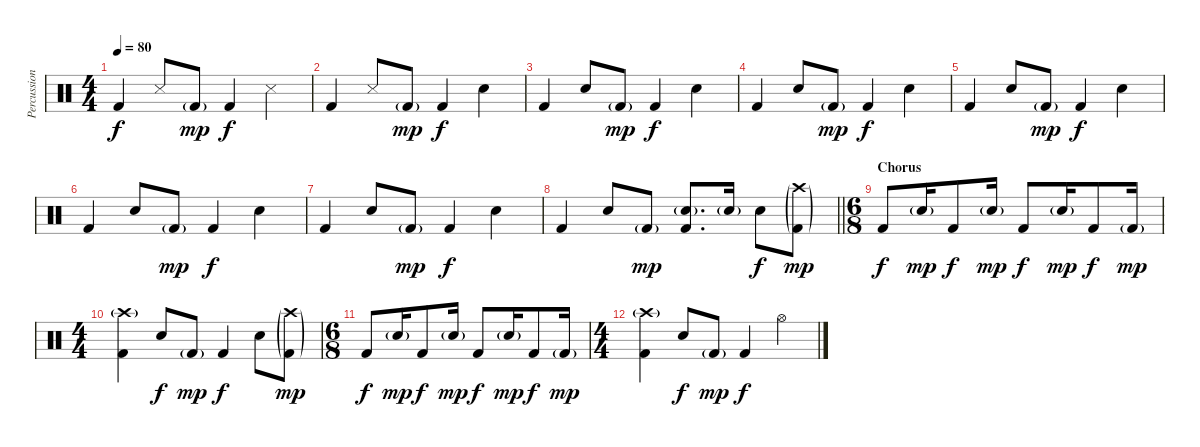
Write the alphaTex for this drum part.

\track ("Percussion" "Percussion") {instrument percussion}
\staff {score}
\articulation defaults
\ts (4 4)
\tempo 80
\clef neutral
\ks c "Kick (hit) 2".4{dy f} "Snare (side stick) 3".8 "Kick (hit) 2"{g}.8{dy mp} "Kick (hit) 2".4{dy f} "Snare (side stick) 3".4
|
"Kick (hit) 2".4 "Snare (side stick) 3".8 "Kick (hit) 2"{g}.8{dy mp} "Kick (hit) 2".4{dy f} "Snare (hit) 2".4 |
"Kick (hit) 2".4 "Snare (hit) 2".8 "Kick (hit) 2"{g}.8{dy mp} "Kick (hit) 2".4{dy f} "Snare (hit) 2".4 |
"Kick (hit) 2".4 "Snare (hit) 2".8 "Kick (hit) 2"{g}.8{dy mp} "Kick (hit) 2".4{dy f} "Snare (hit) 2".4 |
"Kick (hit) 2".4 "Snare (hit) 2".8 "Kick (hit) 2"{g}.8{dy mp} "Kick (hit) 2".4{dy f} "Snare (hit) 2".4 |
"Kick (hit) 2".4 "Snare (hit) 2".8 "Kick (hit) 2"{g}.8{dy mp} "Kick (hit) 2".4{dy f} "Snare (hit) 2".4 |
"Kick (hit) 2".4 "Snare (hit) 2".8 "Kick (hit) 2"{g}.8{dy mp} "Kick (hit) 2".4{dy f} "Snare (hit) 2".4 |
\barLineRight lightlight "Kick (hit) 2".4 "Snare (hit) 2".8 "Kick (hit) 2"{g}.8{dy mp}
("Snare (hit) 2"{g} "Kick (hit) 2").8{d} "Snare (hit) 2"{g}.16 "Snare (hit) 2".8{dy f} ("Crash high (hit)"{g} "Kick (hit) 2"{g}).8{dy mp} |
\ts (6 8)
\section ("" "Chorus")
"Kick (hit) 2".8{dy f} "Snare (hit) 2"{g}.16{dy mp} "Kick (hit) 2".8{dy f} "Snare (hit) 2"{g}.16{dy mp} "Kick (hit) 2".8{dy f} "Snare (hit) 2"{g}.16{dy mp} "Kick (hit) 2".8{dy f} "Kick (hit) 2"{g}.16{dy mp} |
\ts (4 4)
("Crash high (hit)"{g} "Kick (hit) 2").4 "Snare (hit) 2".8{dy f} "Kick (hit) 2"{g}.8{dy mp} "Kick (hit) 2".4{dy f} "Snare (hit) 2".8 ("Crash high (hit)"{g} "Kick (hit) 2"{g}).8{dy mp} |
\ts (6 8)
"Kick (hit) 2".8{dy f} "Snare (hit) 2"{g}.16{dy mp} "Kick (hit) 2".8{dy f} "Snare (hit) 2"{g}.16{dy mp} "Kick (hit) 2".8{dy f} "Snare (hit) 2"{g}.16{dy mp} "Kick (hit) 2".8{dy f} "Kick (hit) 2"{g}.16{dy mp} |
\ts (4 4)
("Crash high (hit)"{g} "Kick (hit) 2").4 "Snare (hit) 2".8{dy f} "Kick (hit) 2"{g}.8{dy mp} "Kick (hit) 2".4{dy f} "Hi-Hat (open)".4
